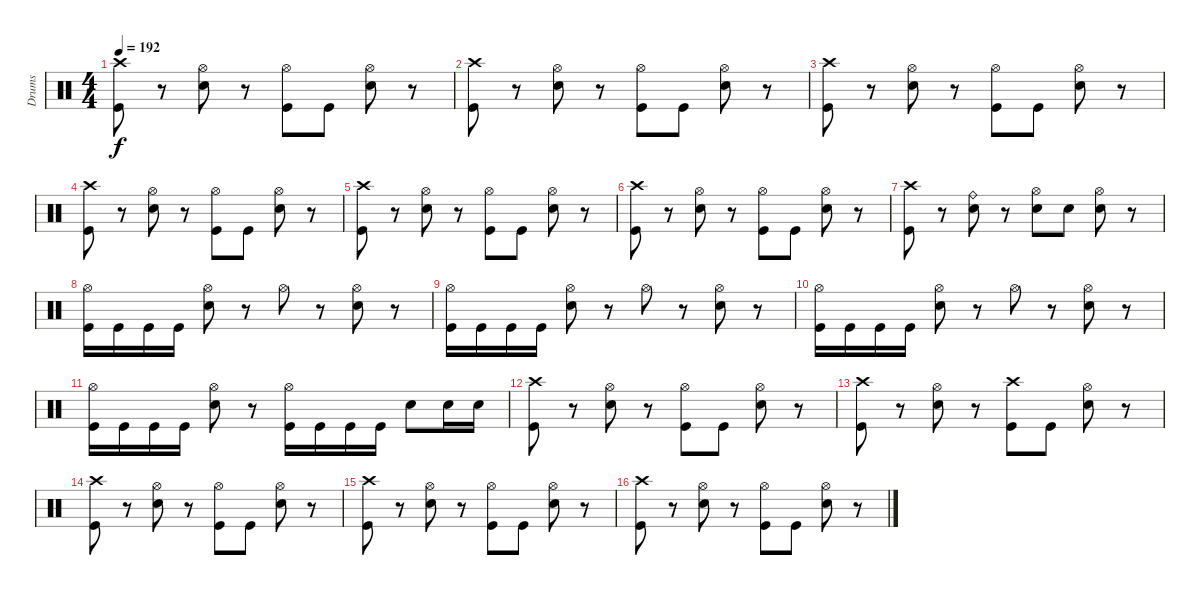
\track ("Drums" "Drums") {instrument percussion}
\staff {score}
\articulation defaults
\ts (4 4)
\tempo 192
\clef neutral
\ks c
("Kick (hit)" "Crash high (hit)").8{dy f} r.8 ("Electric Snare (hit)" "Hi-Hat (open)").8 r.8 ("Kick (hit)" "Hi-Hat (open)").8 "Kick (hit)".8 ("Electric Snare (hit)" "Hi-Hat (open)").8 r.8 |
("Kick (hit)" "Crash high (hit)").8 r.8 ("Electric Snare (hit)" "Hi-Hat (open)").8 r.8 ("Kick (hit)" "Hi-Hat (open)").8 "Kick (hit)".8 ("Electric Snare (hit)" "Hi-Hat (open)").8 r.8 |
("Kick (hit)" "Crash high (hit)").8 r.8 ("Electric Snare (hit)" "Hi-Hat (open)").8 r.8 ("Kick (hit)" "Hi-Hat (open)").8 "Kick (hit)".8 ("Electric Snare (hit)" "Hi-Hat (open)").8 r.8 |
("Kick (hit)" "Crash high (hit)").8 r.8 ("Electric Snare (hit)" "Hi-Hat (open)").8 r.8 ("Kick (hit)" "Hi-Hat (open)").8 "Kick (hit)".8 ("Electric Snare (hit)" "Hi-Hat (open)").8 r.8 |
("Kick (hit)" "Crash high (hit)").8 r.8 ("Electric Snare (hit)" "Hi-Hat (open)").8 r.8 ("Kick (hit)" "Hi-Hat (open)").8 "Kick (hit)".8 ("Electric Snare (hit)" "Hi-Hat (open)").8 r.8 |
("Kick (hit)" "Crash high (hit)").8 r.8 ("Electric Snare (hit)" "Hi-Hat (open)").8 r.8 ("Kick (hit)" "Hi-Hat (open)").8 "Kick (hit)".8 ("Electric Snare (hit)" "Hi-Hat (open)").8 r.8 |
("Kick (hit)" "Crash high (hit)").8 r.8 ("Electric Snare (hit)" "Ride (bell)").8 r.8 ("Electric Snare (hit)" "Hi-Hat (open)").8 "Electric Snare (hit)".8 ("Electric Snare (hit)" "Hi-Hat (open)").8 r.8 |
("Kick (hit)" "Hi-Hat (open)").16 "Kick (hit)".16 "Kick (hit)".16 "Kick (hit)".16 ("Electric Snare (hit)" "Hi-Hat (open)").8 r.8 "Hi-Hat (open)".8 r.8 ("Electric Snare (hit)" "Hi-Hat (open)").8 r.8 |
("Kick (hit)" "Hi-Hat (open)").16 "Kick (hit)".16 "Kick (hit)".16 "Kick (hit)".16 ("Electric Snare (hit)" "Hi-Hat (open)").8 r.8 "Hi-Hat (open)".8 r.8 ("Electric Snare (hit)" "Hi-Hat (open)").8 r.8 |
("Kick (hit)" "Hi-Hat (open)").16 "Kick (hit)".16 "Kick (hit)".16 "Kick (hit)".16 ("Electric Snare (hit)" "Hi-Hat (open)").8 r.8 "Hi-Hat (open)".8 r.8 ("Electric Snare (hit)" "Hi-Hat (open)").8 r.8 |
("Kick (hit)" "Hi-Hat (open)").16 "Kick (hit)".16 "Kick (hit)".16 "Kick (hit)".16 ("Electric Snare (hit)" "Hi-Hat (open)").8 r.8 ("Kick (hit)" "Hi-Hat (open)").16 "Kick (hit)".16 "Kick (hit)".16 "Kick (hit)".16 "Electric Snare (hit)".8 "Electric Snare (hit)".16 "Electric Snare (hit)".16 |
("Kick (hit)" "Crash high (hit)").8 r.8 ("Electric Snare (hit)" "Hi-Hat (open)").8 r.8 ("Kick (hit)" "Hi-Hat (open)").8 "Kick (hit)".8 ("Electric Snare (hit)" "Hi-Hat (open)").8 r.8 |
("Kick (hit)" "Crash high (hit)").8 r.8 ("Electric Snare (hit)" "Hi-Hat (open)").8 r.8 ("Kick (hit)" "Crash high (hit)").8 "Kick (hit)".8 ("Electric Snare (hit)" "Hi-Hat (open)").8 r.8 |
("Kick (hit)" "Crash high (hit)").8 r.8 ("Electric Snare (hit)" "Hi-Hat (open)").8 r.8 ("Kick (hit)" "Hi-Hat (open)").8 "Kick (hit)".8 ("Electric Snare (hit)" "Hi-Hat (open)").8 r.8 |
("Kick (hit)" "Crash high (hit)").8 r.8 ("Electric Snare (hit)" "Hi-Hat (open)").8 r.8 ("Kick (hit)" "Hi-Hat (open)").8 "Kick (hit)".8 ("Electric Snare (hit)" "Hi-Hat (open)").8 r.8 |
("Kick (hit)" "Crash high (hit)").8 r.8 ("Electric Snare (hit)" "Hi-Hat (open)").8 r.8 ("Kick (hit)" "Hi-Hat (open)").8 "Kick (hit)".8 ("Electric Snare (hit)" "Hi-Hat (open)").8 r.8
